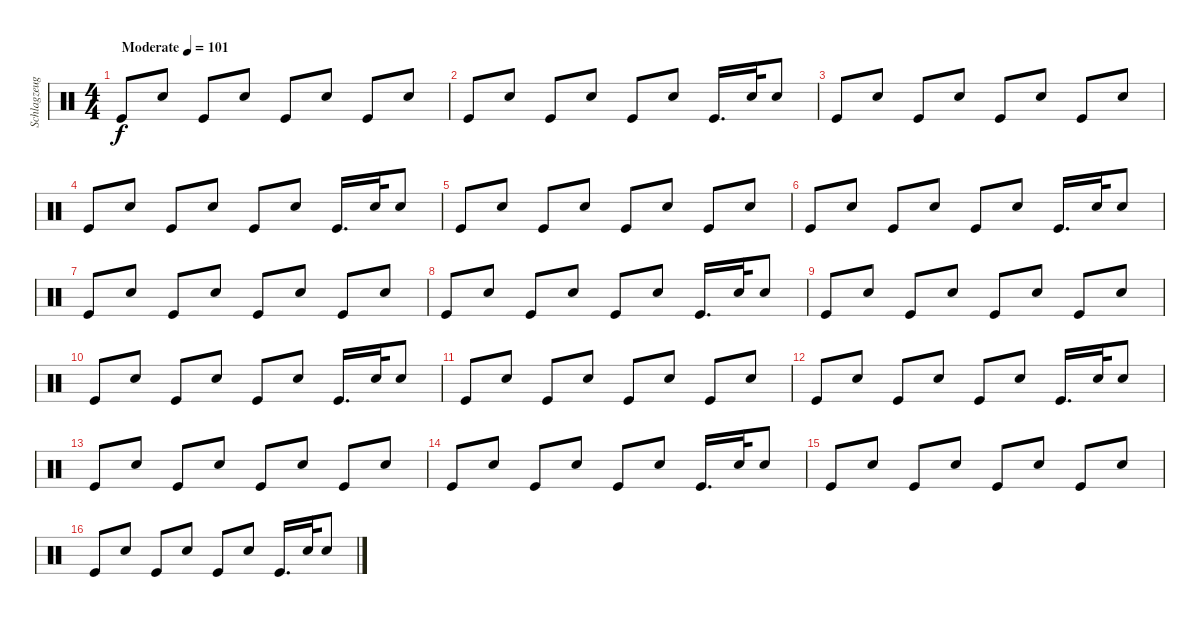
\track ("Schlagzeug" "Schlagzeug") {instrument percussion}
\staff {score}
\articulation defaults
\ts (4 4)
\tempo (101 "Moderate")
\clef neutral
\ks c "Kick (hit)".8{dy f} "Snare (hit) 2".8 "Kick (hit)".8 "Snare (hit) 2".8 "Kick (hit)".8 "Snare (hit) 2".8 "Kick (hit)".8 "Snare (hit) 2".8
|
"Kick (hit)".8 "Snare (hit) 2".8 "Kick (hit)".8 "Snare (hit) 2".8 "Kick (hit)".8 "Snare (hit) 2".8 "Kick (hit)".16{d} "Snare (hit) 2".32 "Snare (hit) 2".8 |
"Kick (hit)".8 "Snare (hit) 2".8 "Kick (hit)".8 "Snare (hit) 2".8 "Kick (hit)".8 "Snare (hit) 2".8 "Kick (hit)".8 "Snare (hit) 2".8 |
"Kick (hit)".8 "Snare (hit) 2".8 "Kick (hit)".8 "Snare (hit) 2".8 "Kick (hit)".8 "Snare (hit) 2".8 "Kick (hit)".16{d} "Snare (hit) 2".32 "Snare (hit) 2".8 |
"Kick (hit)".8 "Snare (hit) 2".8 "Kick (hit)".8 "Snare (hit) 2".8 "Kick (hit)".8 "Snare (hit) 2".8 "Kick (hit)".8 "Snare (hit) 2".8 |
"Kick (hit)".8 "Snare (hit) 2".8 "Kick (hit)".8 "Snare (hit) 2".8 "Kick (hit)".8 "Snare (hit) 2".8 "Kick (hit)".16{d} "Snare (hit) 2".32 "Snare (hit) 2".8 |
"Kick (hit)".8 "Snare (hit) 2".8 "Kick (hit)".8 "Snare (hit) 2".8 "Kick (hit)".8 "Snare (hit) 2".8 "Kick (hit)".8 "Snare (hit) 2".8 |
"Kick (hit)".8 "Snare (hit) 2".8 "Kick (hit)".8 "Snare (hit) 2".8 "Kick (hit)".8 "Snare (hit) 2".8 "Kick (hit)".16{d} "Snare (hit) 2".32 "Snare (hit) 2".8 |
"Kick (hit)".8 "Snare (hit) 2".8 "Kick (hit)".8 "Snare (hit) 2".8 "Kick (hit)".8 "Snare (hit) 2".8 "Kick (hit)".8 "Snare (hit) 2".8 |
"Kick (hit)".8 "Snare (hit) 2".8 "Kick (hit)".8 "Snare (hit) 2".8 "Kick (hit)".8 "Snare (hit) 2".8 "Kick (hit)".16{d} "Snare (hit) 2".32 "Snare (hit) 2".8 |
"Kick (hit)".8 "Snare (hit) 2".8 "Kick (hit)".8 "Snare (hit) 2".8 "Kick (hit)".8 "Snare (hit) 2".8 "Kick (hit)".8 "Snare (hit) 2".8 |
"Kick (hit)".8 "Snare (hit) 2".8 "Kick (hit)".8 "Snare (hit) 2".8 "Kick (hit)".8 "Snare (hit) 2".8 "Kick (hit)".16{d} "Snare (hit) 2".32 "Snare (hit) 2".8 |
"Kick (hit)".8 "Snare (hit) 2".8 "Kick (hit)".8 "Snare (hit) 2".8 "Kick (hit)".8 "Snare (hit) 2".8 "Kick (hit)".8 "Snare (hit) 2".8 |
"Kick (hit)".8 "Snare (hit) 2".8 "Kick (hit)".8 "Snare (hit) 2".8 "Kick (hit)".8 "Snare (hit) 2".8 "Kick (hit)".16{d} "Snare (hit) 2".32 "Snare (hit) 2".8 |
"Kick (hit)".8 "Snare (hit) 2".8 "Kick (hit)".8 "Snare (hit) 2".8 "Kick (hit)".8 "Snare (hit) 2".8 "Kick (hit)".8 "Snare (hit) 2".8 |
"Kick (hit)".8 "Snare (hit) 2".8 "Kick (hit)".8 "Snare (hit) 2".8 "Kick (hit)".8 "Snare (hit) 2".8 "Kick (hit)".16{d} "Snare (hit) 2".32 "Snare (hit) 2".8
